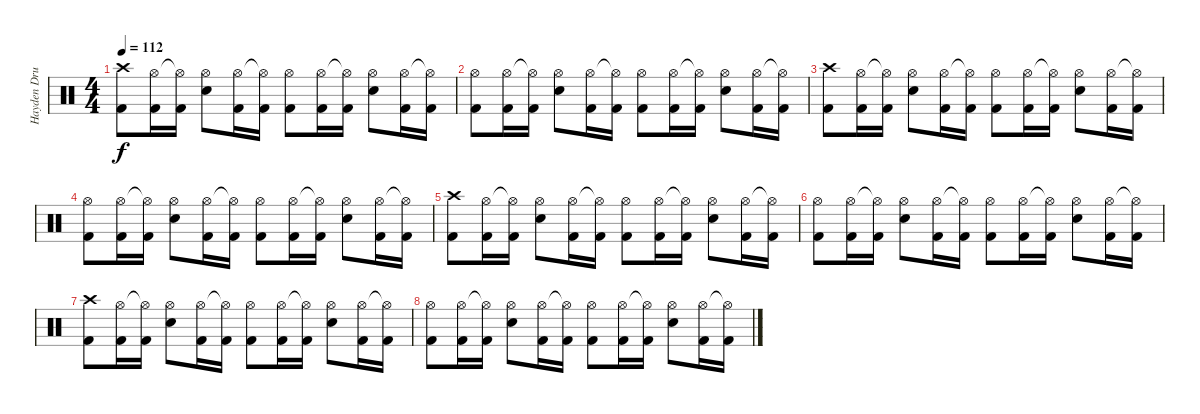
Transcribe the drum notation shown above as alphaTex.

\track ("Hayden Drums" "Hayden Dru") {instrument percussion}
\staff {score}
\articulation defaults
\ts (4 4)
\tempo 112
\clef neutral
\ks c
("Crash high (hit)" "Kick (hit) 2").8{dy f} ("Hi-Hat (open)" "Kick (hit) 2").16 ("Hi-Hat (open)"{t} "Kick (hit) 2").16 ("Hi-Hat (open)" "Electric Snare (hit)").8 ("Hi-Hat (open)" "Kick (hit) 2").16 ("Hi-Hat (open)"{t} "Kick (hit) 2").16 ("Hi-Hat (open)" "Kick (hit) 2").8 ("Hi-Hat (open)" "Kick (hit) 2").16 ("Hi-Hat (open)"{t} "Kick (hit) 2").16 ("Hi-Hat (open)" "Electric Snare (hit)").8 ("Hi-Hat (open)" "Kick (hit) 2").16 ("Hi-Hat (open)"{t} "Kick (hit) 2").16 |
("Hi-Hat (open)" "Kick (hit) 2").8 ("Hi-Hat (open)" "Kick (hit) 2").16 ("Hi-Hat (open)"{t} "Kick (hit) 2").16 ("Hi-Hat (open)" "Electric Snare (hit)").8 ("Hi-Hat (open)" "Kick (hit) 2").16 ("Hi-Hat (open)"{t} "Kick (hit) 2").16 ("Hi-Hat (open)" "Kick (hit) 2").8 ("Hi-Hat (open)" "Kick (hit) 2").16 ("Hi-Hat (open)"{t} "Kick (hit) 2").16 ("Hi-Hat (open)" "Electric Snare (hit)").8 ("Hi-Hat (open)" "Kick (hit) 2").16 ("Hi-Hat (open)"{t} "Kick (hit) 2").16 |
("Crash high (hit)" "Kick (hit) 2").8 ("Hi-Hat (open)" "Kick (hit) 2").16 ("Hi-Hat (open)"{t} "Kick (hit) 2").16 ("Hi-Hat (open)" "Electric Snare (hit)").8 ("Hi-Hat (open)" "Kick (hit) 2").16 ("Hi-Hat (open)"{t} "Kick (hit) 2").16 ("Hi-Hat (open)" "Kick (hit) 2").8 ("Hi-Hat (open)" "Kick (hit) 2").16 ("Hi-Hat (open)"{t} "Kick (hit) 2").16 ("Hi-Hat (open)" "Electric Snare (hit)").8 ("Hi-Hat (open)" "Kick (hit) 2").16 ("Hi-Hat (open)"{t} "Kick (hit) 2").16 |
("Hi-Hat (open)" "Kick (hit) 2").8 ("Hi-Hat (open)" "Kick (hit) 2").16 ("Hi-Hat (open)"{t} "Kick (hit) 2").16 ("Hi-Hat (open)" "Electric Snare (hit)").8 ("Hi-Hat (open)" "Kick (hit) 2").16 ("Hi-Hat (open)"{t} "Kick (hit) 2").16 ("Hi-Hat (open)" "Kick (hit) 2").8 ("Hi-Hat (open)" "Kick (hit) 2").16 ("Hi-Hat (open)"{t} "Kick (hit) 2").16 ("Hi-Hat (open)" "Electric Snare (hit)").8 ("Hi-Hat (open)" "Kick (hit) 2").16 ("Hi-Hat (open)"{t} "Kick (hit) 2").16 |
("Crash high (hit)" "Kick (hit) 2").8{volume 8} ("Hi-Hat (open)" "Kick (hit) 2").16 ("Hi-Hat (open)"{t} "Kick (hit) 2").16 ("Hi-Hat (open)" "Electric Snare (hit)").8 ("Hi-Hat (open)" "Kick (hit) 2").16 ("Hi-Hat (open)"{t} "Kick (hit) 2").16 ("Hi-Hat (open)" "Kick (hit) 2").8 ("Hi-Hat (open)" "Kick (hit) 2").16 ("Hi-Hat (open)"{t} "Kick (hit) 2").16 ("Hi-Hat (open)" "Electric Snare (hit)").8 ("Hi-Hat (open)" "Kick (hit) 2").16 ("Hi-Hat (open)"{t} "Kick (hit) 2").16 |
("Hi-Hat (open)" "Kick (hit) 2").8 ("Hi-Hat (open)" "Kick (hit) 2").16 ("Hi-Hat (open)"{t} "Kick (hit) 2").16 ("Hi-Hat (open)" "Electric Snare (hit)").8 ("Hi-Hat (open)" "Kick (hit) 2").16 ("Hi-Hat (open)"{t} "Kick (hit) 2").16 ("Hi-Hat (open)" "Kick (hit) 2").8 ("Hi-Hat (open)" "Kick (hit) 2").16 ("Hi-Hat (open)"{t} "Kick (hit) 2").16 ("Hi-Hat (open)" "Electric Snare (hit)").8 ("Hi-Hat (open)" "Kick (hit) 2").16 ("Hi-Hat (open)"{t} "Kick (hit) 2").16 |
("Crash high (hit)" "Kick (hit) 2").8{volume 0} ("Hi-Hat (open)" "Kick (hit) 2").16 ("Hi-Hat (open)"{t} "Kick (hit) 2").16 ("Hi-Hat (open)" "Electric Snare (hit)").8 ("Hi-Hat (open)" "Kick (hit) 2").16 ("Hi-Hat (open)"{t} "Kick (hit) 2").16 ("Hi-Hat (open)" "Kick (hit) 2").8 ("Hi-Hat (open)" "Kick (hit) 2").16 ("Hi-Hat (open)"{t} "Kick (hit) 2").16 ("Hi-Hat (open)" "Electric Snare (hit)").8 ("Hi-Hat (open)" "Kick (hit) 2").16 ("Hi-Hat (open)"{t} "Kick (hit) 2").16 |
("Hi-Hat (open)" "Kick (hit) 2").8 ("Hi-Hat (open)" "Kick (hit) 2").16 ("Hi-Hat (open)"{t} "Kick (hit) 2").16 ("Hi-Hat (open)" "Electric Snare (hit)").8 ("Hi-Hat (open)" "Kick (hit) 2").16 ("Hi-Hat (open)"{t} "Kick (hit) 2").16 ("Hi-Hat (open)" "Kick (hit) 2").8 ("Hi-Hat (open)" "Kick (hit) 2").16 ("Hi-Hat (open)"{t} "Kick (hit) 2").16 ("Hi-Hat (open)" "Electric Snare (hit)").8 ("Hi-Hat (open)" "Kick (hit) 2").16 ("Hi-Hat (open)"{t} "Kick (hit) 2").16
